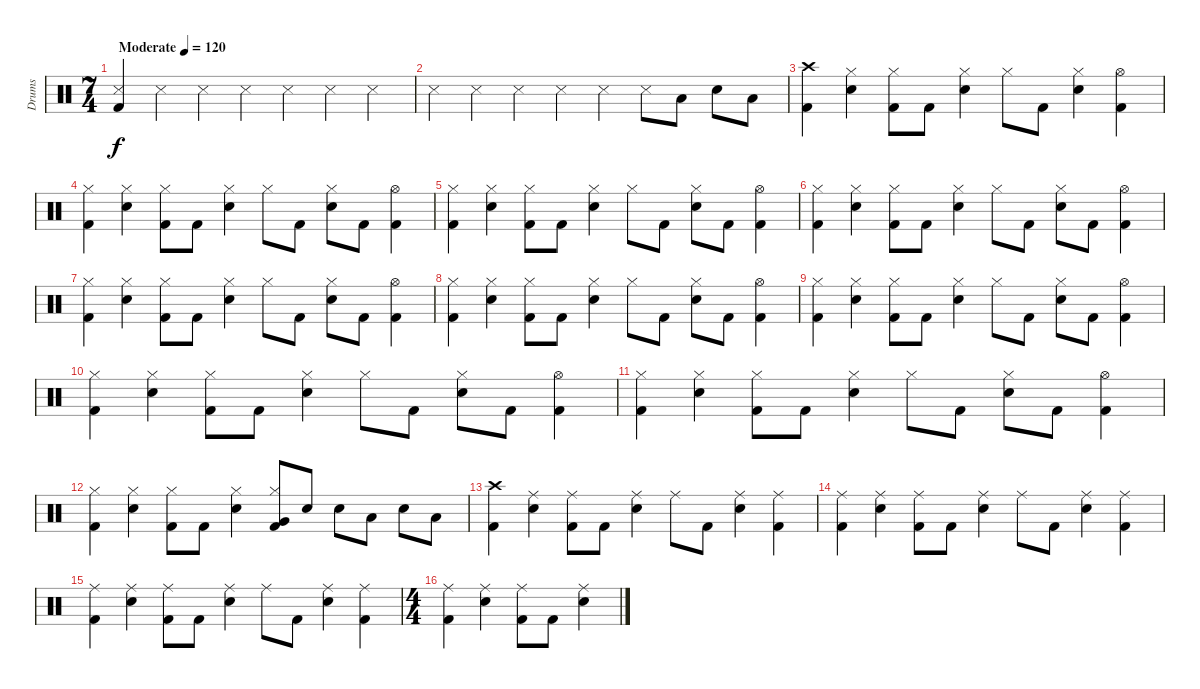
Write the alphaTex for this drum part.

\track ("Drums" "Drums") {instrument percussion}
\staff {score}
\articulation defaults
\ts (7 4)
\tempo (120 "Moderate")
\clef neutral
\ks c
("Snare (side stick) 3" "Kick (hit) 2").4{dy f} "Snare (side stick) 3".4 "Snare (side stick) 3".4 "Snare (side stick) 3".4 "Snare (side stick) 3".4 "Snare (side stick) 3".4 "Snare (side stick) 3".4 |
"Snare (side stick) 3".4 "Snare (side stick) 3".4 "Snare (side stick) 3".4 "Snare (side stick) 3".4 "Snare (side stick) 3".4 "Snare (side stick) 3".8 "Low Tom (hit)".8 "Snare (hit) 2".8 "Low Tom (hit)".8 |
("Crash high (hit)" "Kick (hit) 2").4 ("Hi-Hat (closed)" "Snare (hit) 2").4 ("Hi-Hat (closed)" "Kick (hit) 2").8 "Kick (hit) 2".8 ("Hi-Hat (closed)" "Snare (hit) 2").4 "Hi-Hat (closed)".8 "Kick (hit) 2".8 ("Hi-Hat (closed)" "Snare (hit) 2").4 ("Hi-Hat (open)" "Kick (hit) 2").4 |
("Hi-Hat (closed)" "Kick (hit) 2").4 ("Hi-Hat (closed)" "Snare (hit) 2").4 ("Hi-Hat (closed)" "Kick (hit) 2").8 "Kick (hit) 2".8 ("Hi-Hat (closed)" "Snare (hit) 2").4 "Hi-Hat (closed)".8 "Kick (hit) 2".8 ("Hi-Hat (closed)" "Snare (hit) 2").8 "Kick (hit) 2".8 ("Hi-Hat (open)" "Kick (hit) 2").4 |
("Hi-Hat (closed)" "Kick (hit) 2").4 ("Hi-Hat (closed)" "Snare (hit) 2").4 ("Hi-Hat (closed)" "Kick (hit) 2").8 "Kick (hit) 2".8 ("Hi-Hat (closed)" "Snare (hit) 2").4 "Hi-Hat (closed)".8 "Kick (hit) 2".8 ("Hi-Hat (closed)" "Snare (hit) 2").8 "Kick (hit) 2".8 ("Hi-Hat (open)" "Kick (hit) 2").4 |
("Hi-Hat (closed)" "Kick (hit) 2").4 ("Hi-Hat (closed)" "Snare (hit) 2").4 ("Hi-Hat (closed)" "Kick (hit) 2").8 "Kick (hit) 2".8 ("Hi-Hat (closed)" "Snare (hit) 2").4 "Hi-Hat (closed)".8 "Kick (hit) 2".8 ("Hi-Hat (closed)" "Snare (hit) 2").8 "Kick (hit) 2".8 ("Hi-Hat (open)" "Kick (hit) 2").4 |
("Hi-Hat (closed)" "Kick (hit) 2").4 ("Hi-Hat (closed)" "Snare (hit) 2").4 ("Hi-Hat (closed)" "Kick (hit) 2").8 "Kick (hit) 2".8 ("Hi-Hat (closed)" "Snare (hit) 2").4 "Hi-Hat (closed)".8 "Kick (hit) 2".8 ("Hi-Hat (closed)" "Snare (hit) 2").8 "Kick (hit) 2".8 ("Hi-Hat (open)" "Kick (hit) 2").4 |
("Hi-Hat (closed)" "Kick (hit) 2").4 ("Hi-Hat (closed)" "Snare (hit) 2").4 ("Hi-Hat (closed)" "Kick (hit) 2").8 "Kick (hit) 2".8 ("Hi-Hat (closed)" "Snare (hit) 2").4 "Hi-Hat (closed)".8 "Kick (hit) 2".8 ("Hi-Hat (closed)" "Snare (hit) 2").8 "Kick (hit) 2".8 ("Hi-Hat (open)" "Kick (hit) 2").4 |
("Hi-Hat (closed)" "Kick (hit) 2").4 ("Hi-Hat (closed)" "Snare (hit) 2").4 ("Hi-Hat (closed)" "Kick (hit) 2").8 "Kick (hit) 2".8 ("Hi-Hat (closed)" "Snare (hit) 2").4 "Hi-Hat (closed)".8 "Kick (hit) 2".8 ("Hi-Hat (closed)" "Snare (hit) 2").8 "Kick (hit) 2".8 ("Hi-Hat (open)" "Kick (hit) 2").4 |
("Hi-Hat (closed)" "Kick (hit) 2").4 ("Hi-Hat (closed)" "Snare (hit) 2").4 ("Hi-Hat (closed)" "Kick (hit) 2").8 "Kick (hit) 2".8 ("Hi-Hat (closed)" "Snare (hit) 2").4 "Hi-Hat (closed)".8 "Kick (hit) 2".8 ("Hi-Hat (closed)" "Snare (hit) 2").8 "Kick (hit) 2".8 ("Hi-Hat (open)" "Kick (hit) 2").4 |
("Hi-Hat (closed)" "Kick (hit) 2").4 ("Hi-Hat (closed)" "Snare (hit) 2").4 ("Hi-Hat (closed)" "Kick (hit) 2").8 "Kick (hit) 2".8 ("Hi-Hat (closed)" "Snare (hit) 2").4 "Hi-Hat (closed)".8 "Kick (hit) 2".8 ("Hi-Hat (closed)" "Snare (hit) 2").8 "Kick (hit) 2".8 ("Hi-Hat (open)" "Kick (hit) 2").4 |
("Hi-Hat (closed)" "Kick (hit) 2").4 ("Hi-Hat (closed)" "Snare (hit) 2").4 ("Hi-Hat (closed)" "Kick (hit) 2").8 "Kick (hit) 2".8 ("Hi-Hat (closed)" "Snare (hit) 2").4 ("Hi-Hat (closed)" "Very Low Tom (hit)" "Kick (hit) 2").8 "Snare (hit) 2".8 "Snare (hit) 2".8 "Low Tom (hit)".8 "Snare (hit) 2".8 "Low Tom (hit)".8 |
("Crash high (hit)" "Kick (hit) 2").4 ("Ride (middle)" "Snare (hit) 2").4 ("Ride (middle)" "Kick (hit) 2").8 "Kick (hit) 2".8 ("Ride (middle)" "Snare (hit) 2").4 "Ride (middle)".8 "Kick (hit) 2".8 ("Ride (middle)" "Snare (hit) 2").4 ("Ride (middle)" "Kick (hit) 2").4 |
("Ride (middle)" "Kick (hit) 2").4 ("Ride (middle)" "Snare (hit) 2").4 ("Ride (middle)" "Kick (hit) 2").8 "Kick (hit) 2".8 ("Ride (middle)" "Snare (hit) 2").4 "Ride (middle)".8 "Kick (hit) 2".8 ("Ride (middle)" "Snare (hit) 2").4 ("Ride (middle)" "Kick (hit) 2").4 |
("Ride (middle)" "Kick (hit) 2").4 ("Ride (middle)" "Snare (hit) 2").4 ("Ride (middle)" "Kick (hit) 2").8 "Kick (hit) 2".8 ("Ride (middle)" "Snare (hit) 2").4 "Ride (middle)".8 "Kick (hit) 2".8 ("Ride (middle)" "Snare (hit) 2").4 ("Ride (middle)" "Kick (hit) 2").4 |
\ts (4 4)
("Ride (middle)" "Kick (hit) 2").4 ("Ride (middle)" "Snare (hit) 2").4 ("Ride (middle)" "Kick (hit) 2").8 "Kick (hit) 2".8 ("Ride (middle)" "Snare (hit) 2").4
